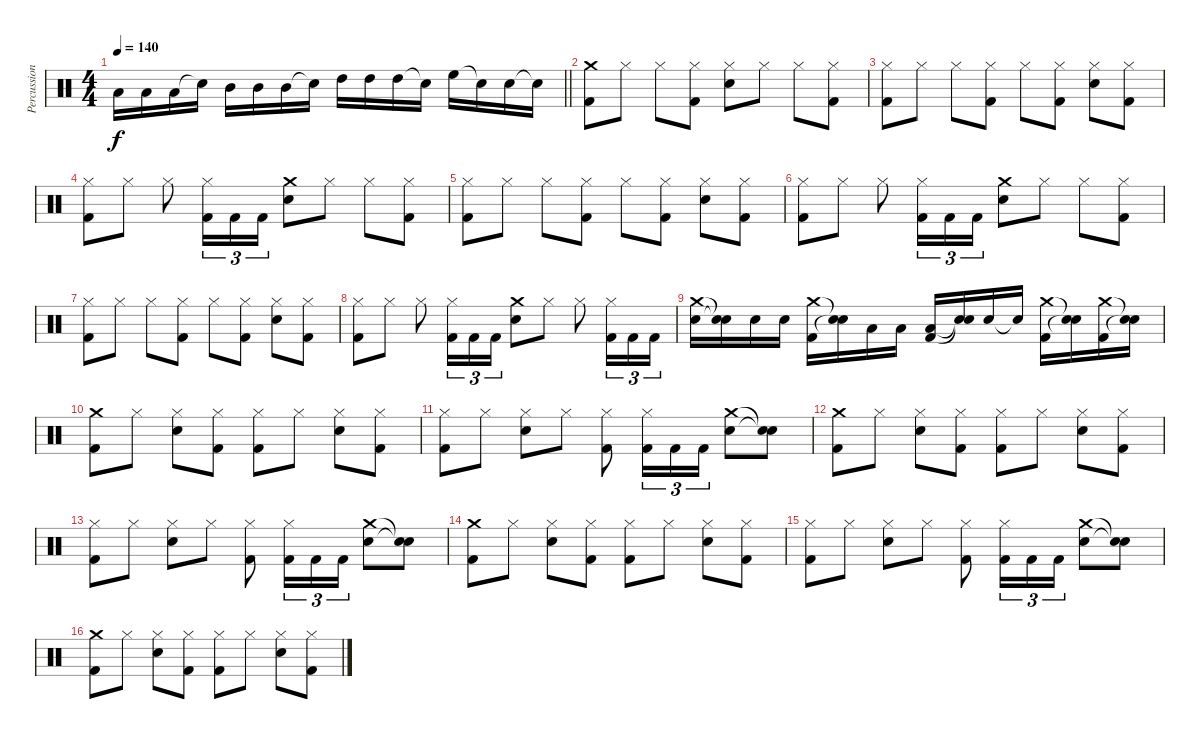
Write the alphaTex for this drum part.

\track ("Percussion" "Percussion") {instrument percussion}
\staff {score}
\articulation defaults
\ts (4 4)
\tempo 140
\clef neutral
\barLineRight lightlight
\ks c "Low Tom (hit)".16{dy f} "Low Tom (hit)".16 "Low Tom (hit)".16 "Snare (hit)"{t}.16 "Mid Tom (hit)".16 "Mid Tom (hit)".16 "Mid Tom (hit)".16 "Snare (hit)"{t}.16 "High Tom (hit)".16 "High Tom (hit)".16 "High Tom (hit)".16 "Snare (hit)"{t}.16 "High Floor Tom (hit)".16 "Snare (hit)"{t}.16 "Snare (hit) 2".16 "Snare (hit)"{t}.16
|
("Crash medium (hit)" "Kick (hit) 2").8 "Hi-Hat (closed)".8 "Hi-Hat (closed)".8 ("Hi-Hat (closed)" "Kick (hit) 2").8 ("Hi-Hat (closed)" "Snare (hit) 2").8 "Hi-Hat (closed)".8 "Hi-Hat (closed)".8 ("Hi-Hat (closed)" "Kick (hit) 2").8 |
("Hi-Hat (closed)" "Kick (hit) 2").8 "Hi-Hat (closed)".8 "Hi-Hat (closed)".8 ("Hi-Hat (closed)" "Kick (hit) 2").8 "Hi-Hat (closed)".8 ("Hi-Hat (closed)" "Kick (hit) 2").8 ("Hi-Hat (closed)" "Snare (hit) 2").8 ("Hi-Hat (closed)" "Kick (hit) 2").8 |
("Hi-Hat (closed)" "Kick (hit) 2").8 "Hi-Hat (closed)".8 "Hi-Hat (closed)".8 ("Hi-Hat (closed)" "Kick (hit) 2").16{tu (3 2)} "Kick (hit) 2".16{tu (3 2)} "Kick (hit) 2".16{tu (3 2)} ("Crash medium (hit)" "Snare (hit) 2").8 "Hi-Hat (closed)".8 "Hi-Hat (closed)".8 ("Hi-Hat (closed)" "Kick (hit) 2").8 |
("Hi-Hat (closed)" "Kick (hit) 2").8 "Hi-Hat (closed)".8 "Hi-Hat (closed)".8 ("Hi-Hat (closed)" "Kick (hit) 2").8 "Hi-Hat (closed)".8 ("Hi-Hat (closed)" "Kick (hit) 2").8 ("Hi-Hat (closed)" "Snare (hit) 2").8 ("Hi-Hat (closed)" "Kick (hit) 2").8 |
("Hi-Hat (closed)" "Kick (hit) 2").8 "Hi-Hat (closed)".8 "Hi-Hat (closed)".8 ("Hi-Hat (closed)" "Kick (hit) 2").16{tu (3 2)} "Kick (hit) 2".16{tu (3 2)} "Kick (hit) 2".16{tu (3 2)} ("Crash medium (hit)" "Snare (hit) 2").8 "Hi-Hat (closed)".8 "Hi-Hat (closed)".8 ("Hi-Hat (closed)" "Kick (hit) 2").8 |
("Hi-Hat (closed)" "Kick (hit) 2").8 "Hi-Hat (closed)".8 "Hi-Hat (closed)".8 ("Hi-Hat (closed)" "Kick (hit) 2").8 "Hi-Hat (closed)".8 ("Hi-Hat (closed)" "Kick (hit) 2").8 ("Hi-Hat (closed)" "Snare (hit) 2").8 ("Hi-Hat (closed)" "Kick (hit) 2").8 |
("Hi-Hat (closed)" "Kick (hit) 2").8 "Hi-Hat (closed)".8 "Hi-Hat (closed)".8 ("Hi-Hat (closed)" "Kick (hit) 2").16{tu (3 2)} "Kick (hit) 2".16{tu (3 2)} "Kick (hit) 2".16{tu (3 2)} ("Crash medium (hit)" "Snare (hit) 2").8 "Hi-Hat (closed)".8 "Hi-Hat (closed)".8 ("Hi-Hat (closed)" "Kick (hit) 2").16{tu (3 2)} "Kick (hit) 2".16{tu (3 2)} "Kick (hit) 2".16{tu (3 2)} |
("Crash medium (hit)" "Snare (hit) 2").16 ("Snare (hit)"{t} "Snare (hit)"{t}).16 "Snare (hit) 2".16 "Snare (hit) 2".16 ("Crash medium (hit)" "Kick (hit) 2").16 ("Snare (hit)"{t} "Snare (hit)"{t}).16 "Low Tom (hit)".16 "Low Tom (hit)".16 ("Low Tom (hit)" "Kick (hit) 2").16 ("Snare (hit)"{t} "Snare (hit)"{t}).16 "Snare (hit) 2".16 "Snare (hit)"{t}.16 ("Crash medium (hit)" "Kick (hit) 2").16 ("Snare (hit)"{t} "Snare (hit)"{t}).16 ("Crash medium (hit)" "Kick (hit) 2").16 ("Snare (hit)"{t} "Snare (hit)"{t}).16 |
("Crash medium (hit)" "Kick (hit) 2").8 "Hi-Hat (closed)".8 ("Hi-Hat (closed)" "Snare (hit) 2").8 ("Hi-Hat (closed)" "Kick (hit) 2").8 ("Hi-Hat (closed)" "Kick (hit) 2").8 "Hi-Hat (closed)".8 ("Hi-Hat (closed)" "Snare (hit) 2").8 ("Hi-Hat (closed)" "Kick (hit) 2").8 |
("Hi-Hat (closed)" "Kick (hit) 2").8 "Hi-Hat (closed)".8 ("Hi-Hat (closed)" "Snare (hit) 2").8 "Hi-Hat (closed)".8 ("Hi-Hat (closed)" "Kick (hit) 2").8 ("Hi-Hat (closed)" "Kick (hit) 2").16{tu (3 2)} "Kick (hit) 2".16{tu (3 2)} "Kick (hit) 2".16{tu (3 2)} ("Crash medium (hit)" "Snare (hit) 2").8 ("Snare (hit)"{t} "Snare (hit)"{t}).8 |
("Crash medium (hit)" "Kick (hit) 2").8 "Hi-Hat (closed)".8 ("Hi-Hat (closed)" "Snare (hit) 2").8 ("Hi-Hat (closed)" "Kick (hit) 2").8 ("Hi-Hat (closed)" "Kick (hit) 2").8 "Hi-Hat (closed)".8 ("Hi-Hat (closed)" "Snare (hit) 2").8 ("Hi-Hat (closed)" "Kick (hit) 2").8 |
("Hi-Hat (closed)" "Kick (hit) 2").8 "Hi-Hat (closed)".8 ("Hi-Hat (closed)" "Snare (hit) 2").8 "Hi-Hat (closed)".8 ("Hi-Hat (closed)" "Kick (hit) 2").8 ("Hi-Hat (closed)" "Kick (hit) 2").16{tu (3 2)} "Kick (hit) 2".16{tu (3 2)} "Kick (hit) 2".16{tu (3 2)} ("Crash medium (hit)" "Snare (hit) 2").8 ("Snare (hit)"{t} "Snare (hit)"{t}).8 |
("Crash medium (hit)" "Kick (hit) 2").8 "Hi-Hat (closed)".8 ("Hi-Hat (closed)" "Snare (hit) 2").8 ("Hi-Hat (closed)" "Kick (hit) 2").8 ("Hi-Hat (closed)" "Kick (hit) 2").8 "Hi-Hat (closed)".8 ("Hi-Hat (closed)" "Snare (hit) 2").8 ("Hi-Hat (closed)" "Kick (hit) 2").8 |
("Hi-Hat (closed)" "Kick (hit) 2").8 "Hi-Hat (closed)".8 ("Hi-Hat (closed)" "Snare (hit) 2").8 "Hi-Hat (closed)".8 ("Hi-Hat (closed)" "Kick (hit) 2").8 ("Hi-Hat (closed)" "Kick (hit) 2").16{tu (3 2)} "Kick (hit) 2".16{tu (3 2)} "Kick (hit) 2".16{tu (3 2)} ("Crash medium (hit)" "Snare (hit) 2").8 ("Snare (hit)"{t} "Snare (hit)"{t}).8 |
("Crash medium (hit)" "Kick (hit) 2").8 "Hi-Hat (closed)".8 ("Hi-Hat (closed)" "Snare (hit) 2").8 ("Hi-Hat (closed)" "Kick (hit) 2").8 ("Hi-Hat (closed)" "Kick (hit) 2").8 "Hi-Hat (closed)".8 ("Hi-Hat (closed)" "Snare (hit) 2").8 ("Hi-Hat (closed)" "Kick (hit) 2").8
